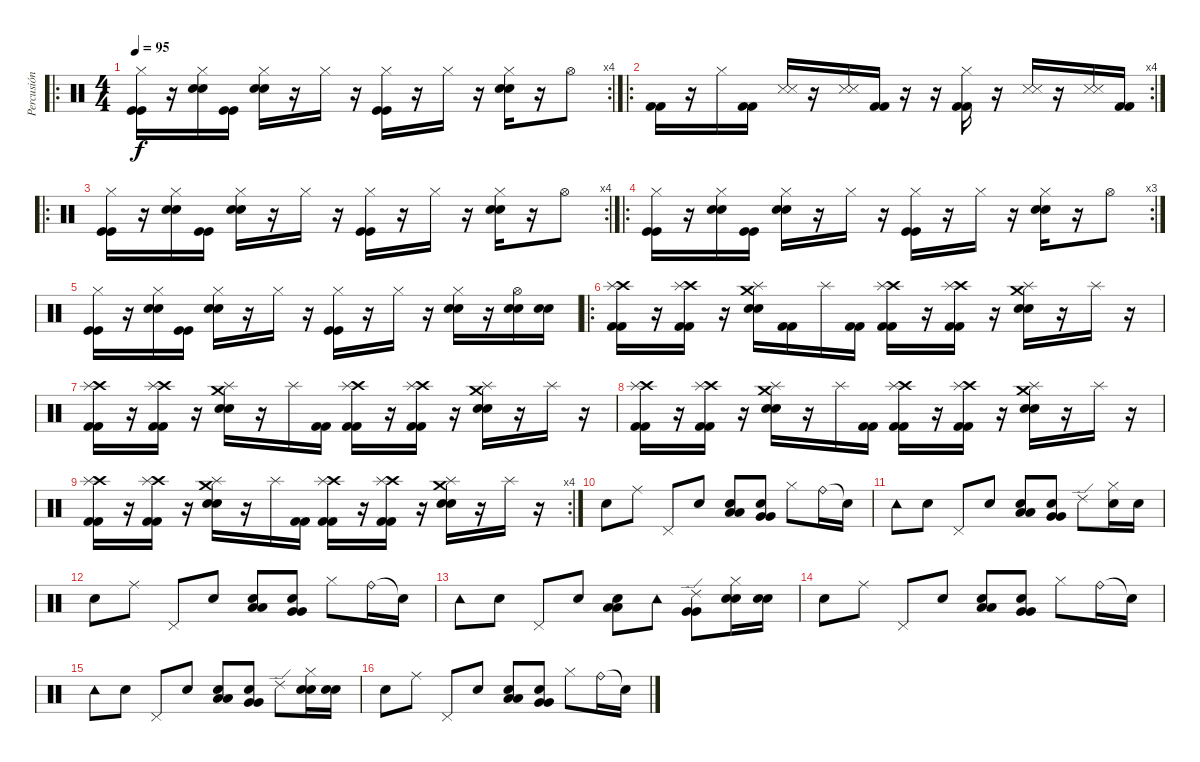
\track ("Percusión" "Percusión") {instrument percussion}
\staff {score}
\articulation defaults
\ro
\rc 4
\ts (4 4)
\tempo 95
\clef neutral
\ks c
("Hi-Hat (closed)" "Kick (hit)" "Kick (hit)").16{dy f} r.16 ("Hi-Hat (closed)" "Snare (hit)" "Snare (hit)").16 ("Kick (hit)" "Kick (hit)").16 ("Hi-Hat (closed)" "Snare (hit) 2" "Snare (hit) 2").16 r.16 "Hi-Hat (closed)".16 r.16 ("Hi-Hat (closed)" "Kick (hit)" "Kick (hit)").16 r.16 "Hi-Hat (closed)".16 r.16 ("Hi-Hat (closed)" "Snare (hit) 2" "Snare (hit) 2").16 r.16 "Hi-Hat (open)".8 |
\ro
\rc 4
("Kick (hit) 2" "Kick (hit) 2").16 r.16 "Hi-Hat (closed)".16 ("Kick (hit) 2" "Kick (hit) 2").16 ("Snare (side stick) 3" "Snare (side stick) 3").16 r.16 ("Snare (side stick) 3" "Snare (side stick) 3").16 ("Kick (hit) 2" "Kick (hit) 2").16 r.16 r.16 ("Hi-Hat (closed)" "Kick (hit) 2" "Kick (hit) 2").16 r.16 ("Snare (side stick) 3" "Snare (side stick) 3").16 r.16 ("Snare (side stick) 3" "Snare (side stick) 3").16 ("Kick (hit) 2" "Kick (hit) 2").16 |
\ro
\rc 4
("Hi-Hat (closed)" "Kick (hit)" "Kick (hit)").16 r.16 ("Hi-Hat (closed)" "Snare (hit)" "Snare (hit)").16 ("Kick (hit)" "Kick (hit)").16 ("Hi-Hat (closed)" "Snare (hit) 2" "Snare (hit) 2").16 r.16 "Hi-Hat (closed)".16 r.16 ("Hi-Hat (closed)" "Kick (hit)" "Kick (hit)").16 r.16 "Hi-Hat (closed)".16 r.16 ("Hi-Hat (closed)" "Snare (hit) 2" "Snare (hit) 2").16 r.16 "Hi-Hat (open)".8 |
\ro
\rc 3
("Hi-Hat (closed)" "Kick (hit)" "Kick (hit)").16 r.16 ("Hi-Hat (closed)" "Snare (hit)" "Snare (hit)").16 ("Kick (hit)" "Kick (hit)").16 ("Hi-Hat (closed)" "Snare (hit) 2" "Snare (hit) 2").16 r.16 "Hi-Hat (closed)".16 r.16 ("Hi-Hat (closed)" "Kick (hit)" "Kick (hit)").16 r.16 "Hi-Hat (closed)".16 r.16 ("Hi-Hat (closed)" "Snare (hit) 2" "Snare (hit) 2").16 r.16 "Hi-Hat (open)".8 |
("Hi-Hat (closed)" "Kick (hit)" "Kick (hit)").16 r.16 ("Hi-Hat (closed)" "Snare (hit)" "Snare (hit)").16 ("Kick (hit)" "Kick (hit)").16 ("Hi-Hat (closed)" "Snare (hit) 2" "Snare (hit) 2").16 r.16 "Hi-Hat (closed)".16 r.16 ("Hi-Hat (closed)" "Kick (hit)" "Kick (hit)").16 r.16 "Hi-Hat (closed)".16 r.16 ("Hi-Hat (closed)" "Electric Snare (hit)" "Electric Snare (hit)").16 r.16 ("Hi-Hat (open)" "Electric Snare (hit)" "Electric Snare (hit)").16 ("Electric Snare (hit)" "Electric Snare (hit)").16 |
\ro
("Crash high (hit)" "Splash (hit)" "Kick (hit) 2" "Kick (hit) 2").16 r.16 ("Crash high (hit)" "Splash (hit)" "Kick (hit) 2" "Kick (hit) 2").16 r.16 ("Crash medium (hit)" "Splash (hit)" "Electric Snare (hit)" "Electric Snare (hit)").16 ("Kick (hit) 2" "Kick (hit) 2").16 "Splash (hit)".16 ("Kick (hit) 2" "Kick (hit) 2").16 ("Crash high (hit)" "Splash (hit)" "Kick (hit) 2" "Kick (hit) 2").16 r.16 ("Crash high (hit)" "Splash (hit)" "Kick (hit) 2" "Kick (hit) 2").16 r.16 ("Crash medium (hit)" "Splash (hit)" "Electric Snare (hit)" "Electric Snare (hit)").16 r.16 "Splash (hit)".16 r.16 |
("Crash high (hit)" "Splash (hit)" "Kick (hit) 2" "Kick (hit) 2").16 r.16 ("Crash high (hit)" "Splash (hit)" "Kick (hit) 2" "Kick (hit) 2").16 r.16 ("Crash medium (hit)" "Splash (hit)" "Electric Snare (hit)" "Electric Snare (hit)").16 r.16 "Splash (hit)".16 ("Kick (hit) 2" "Kick (hit) 2").16 ("Crash high (hit)" "Splash (hit)" "Kick (hit) 2" "Kick (hit) 2").16 r.16 ("Crash high (hit)" "Splash (hit)" "Kick (hit) 2" "Kick (hit) 2").16 r.16 ("Crash medium (hit)" "Splash (hit)" "Electric Snare (hit)" "Electric Snare (hit)").16 r.16 "Splash (hit)".16 r.16 |
("Crash high (hit)" "Splash (hit)" "Kick (hit) 2" "Kick (hit) 2").16 r.16 ("Crash high (hit)" "Splash (hit)" "Kick (hit) 2" "Kick (hit) 2").16 r.16 ("Crash medium (hit)" "Splash (hit)" "Electric Snare (hit)" "Electric Snare (hit)").16 r.16 "Splash (hit)".16 ("Kick (hit) 2" "Kick (hit) 2").16 ("Crash high (hit)" "Splash (hit)" "Kick (hit) 2" "Kick (hit) 2").16 r.16 ("Crash high (hit)" "Splash (hit)" "Kick (hit) 2" "Kick (hit) 2").16 r.16 ("Crash medium (hit)" "Splash (hit)" "Electric Snare (hit)" "Electric Snare (hit)").16 r.16 "Splash (hit)".16 r.16 |
\rc 4
("Crash high (hit)" "Splash (hit)" "Kick (hit) 2" "Kick (hit) 2").16 r.16 ("Crash high (hit)" "Splash (hit)" "Kick (hit) 2" "Kick (hit) 2").16 r.16 ("Crash medium (hit)" "Splash (hit)" "Electric Snare (hit)" "Electric Snare (hit)").16 r.16 "Splash (hit)".16 ("Kick (hit) 2" "Kick (hit) 2").16 ("Crash high (hit)" "Splash (hit)" "Kick (hit) 2" "Kick (hit) 2").16 r.16 ("Crash high (hit)" "Splash (hit)" "Kick (hit) 2" "Kick (hit) 2").16 r.16 ("Crash medium (hit)" "Splash (hit)" "Electric Snare (hit)" "Electric Snare (hit)").16 r.16 "Splash (hit)".16 r.16 |
"Snare (hit)".8 "Ride (middle)".8 "Pedal Hi-Hat (hit)".8 "Snare (hit)".8 ("Snare (hit)" "Low Tom (hit)" "Low Tom (hit)").8 ("Snare (hit)" "Very Low Tom (hit)" "Very Low Tom (hit)").8 "Hi-Hat (closed)".8 "Ride (bell)".16 "Snare (hit)"{t}.16 |
"Tambourine (hit)".8 "Snare (hit)".8 "Pedal Hi-Hat (hit)".8 "Snare (hit)".8 ("Snare (hit)" "Low Tom (hit)" "Low Tom (hit)").8 ("Snare (hit)" "Very Low Tom (hit)" "Very Low Tom (hit)").8 "Ride (edge) 2".8 ("Hi-Hat (closed)" "Electric Snare (hit)").16 "Electric Snare (hit)".16 |
"Snare (hit)".8 "Ride (middle)".8 "Pedal Hi-Hat (hit)".8 "Snare (hit)".8 ("Snare (hit)" "Low Tom (hit)" "Low Tom (hit)").8 ("Snare (hit)" "Very Low Tom (hit)" "Very Low Tom (hit)").8 "Hi-Hat (closed)".8 "Ride (bell)".16 "Snare (hit)"{t}.16 |
"Tambourine (hit)".8 "Snare (hit)".8 "Pedal Hi-Hat (hit)".8 "Snare (hit)".8 ("Snare (hit)" "Low Tom (hit)" "Low Tom (hit)").8 "Tambourine (hit)".8 ("Ride (edge) 2" "Very Low Tom (hit)" "Very Low Tom (hit)").8 ("Hi-Hat (closed)" "Electric Snare (hit)" "Electric Snare (hit)").16 ("Electric Snare (hit)" "Electric Snare (hit)").16 |
"Snare (hit)".8 "Ride (middle)".8 "Pedal Hi-Hat (hit)".8 "Snare (hit)".8 ("Snare (hit)" "Low Tom (hit)" "Low Tom (hit)").8 ("Snare (hit)" "Very Low Tom (hit)" "Very Low Tom (hit)").8 "Hi-Hat (closed)".8 "Ride (bell)".16 "Snare (hit)"{t}.16 |
"Tambourine (hit)".8 "Snare (hit)".8 "Pedal Hi-Hat (hit)".8 "Snare (hit)".8 ("Snare (hit)" "Low Tom (hit)" "Low Tom (hit)").8 ("Snare (hit)" "Very Low Tom (hit)" "Very Low Tom (hit)").8 "Ride (edge) 2".8 ("Hi-Hat (closed)" "Electric Snare (hit)" "Electric Snare (hit)").16 ("Electric Snare (hit)" "Electric Snare (hit)").16 |
"Snare (hit)".8 "Ride (middle)".8 "Pedal Hi-Hat (hit)".8 "Snare (hit)".8 ("Snare (hit)" "Low Tom (hit)" "Low Tom (hit)").8 ("Snare (hit)" "Very Low Tom (hit)" "Very Low Tom (hit)").8 "Hi-Hat (closed)".8 "Ride (bell)".16 "Snare (hit)"{t}.16
